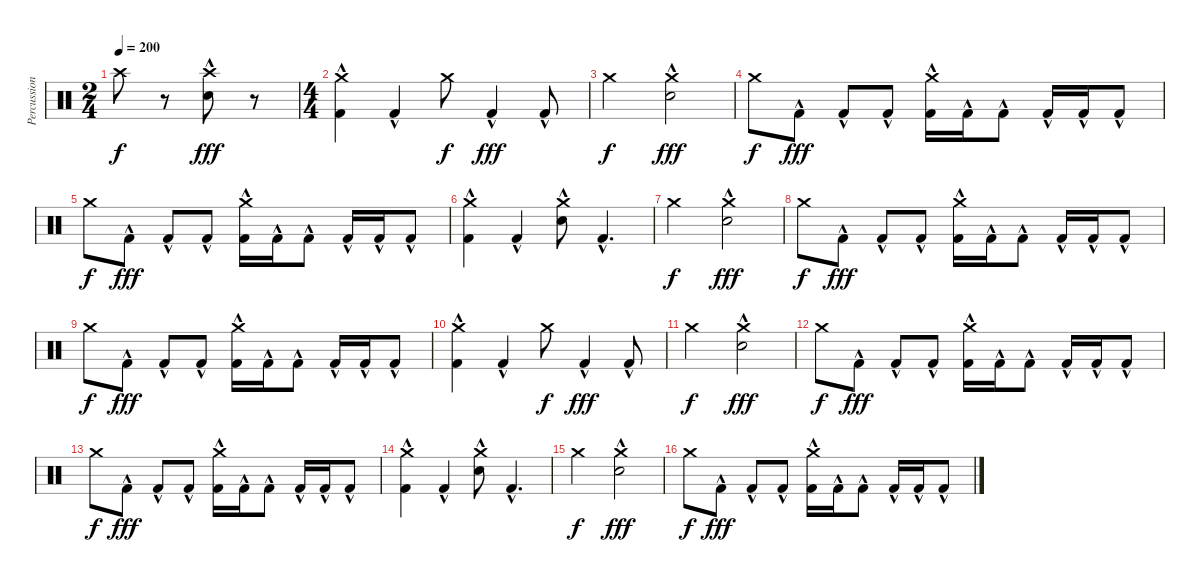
\track ("Percussion" "Percussion") {instrument percussion}
\staff {score}
\articulation defaults
\ts (2 4)
\tempo 200
\clef neutral
\ks c "Crash high (hit)".8{dy f}
r.8 ("Crash high (hit)" "Electric Snare (hit)"{hac}).8{dy fff} r.8 |
\ts (4 4)
("Crash medium (hit)" "Kick (hit) 2"{hac}).4 "Kick (hit) 2"{hac}.4 "Crash medium (hit)".8{dy f} "Kick (hit) 2"{hac}.4{dy fff} "Kick (hit) 2"{hac}.8 |
"Crash medium (hit)".2{dy f} ("Crash medium (hit)" "Electric Snare (hit)"{hac}).2{dy fff} |
"Crash medium (hit)".8{dy f} "Kick (hit) 2"{hac}.8{dy fff} "Kick (hit) 2"{hac}.8 "Kick (hit) 2"{hac}.8 ("Crash medium (hit)" "Kick (hit) 2"{hac}).16 "Kick (hit) 2"{hac}.16 "Kick (hit) 2"{hac}.8 "Kick (hit) 2"{hac}.16 "Kick (hit) 2"{hac}.16 "Kick (hit) 2"{hac}.8 |
"Crash medium (hit)".8{dy f} "Kick (hit) 2"{hac}.8{dy fff} "Kick (hit) 2"{hac}.8 "Kick (hit) 2"{hac}.8 ("Crash medium (hit)" "Kick (hit) 2"{hac}).16 "Kick (hit) 2"{hac}.16 "Kick (hit) 2"{hac}.8 "Kick (hit) 2"{hac}.16 "Kick (hit) 2"{hac}.16 "Kick (hit) 2"{hac}.8 |
("Crash medium (hit)" "Kick (hit) 2"{hac}).4 "Kick (hit) 2"{hac}.4 ("Crash medium (hit)" "Electric Snare (hit)"{hac}).8 "Kick (hit) 2"{hac}.4{d} |
"Crash medium (hit)".2{dy f} ("Crash medium (hit)" "Electric Snare (hit)"{hac}).2{dy fff} |
"Crash medium (hit)".8{dy f} "Kick (hit) 2"{hac}.8{dy fff} "Kick (hit) 2"{hac}.8 "Kick (hit) 2"{hac}.8 ("Crash medium (hit)" "Kick (hit) 2"{hac}).16 "Kick (hit) 2"{hac}.16 "Kick (hit) 2"{hac}.8 "Kick (hit) 2"{hac}.16 "Kick (hit) 2"{hac}.16 "Kick (hit) 2"{hac}.8 |
"Crash medium (hit)".8{dy f} "Kick (hit) 2"{hac}.8{dy fff} "Kick (hit) 2"{hac}.8 "Kick (hit) 2"{hac}.8 ("Crash medium (hit)" "Kick (hit) 2"{hac}).16 "Kick (hit) 2"{hac}.16 "Kick (hit) 2"{hac}.8 "Kick (hit) 2"{hac}.16 "Kick (hit) 2"{hac}.16 "Kick (hit) 2"{hac}.8 |
("Crash medium (hit)" "Kick (hit) 2"{hac}).4 "Kick (hit) 2"{hac}.4 "Crash medium (hit)".8{dy f} "Kick (hit) 2"{hac}.4{dy fff} "Kick (hit) 2"{hac}.8 |
"Crash medium (hit)".2{dy f} ("Crash medium (hit)" "Electric Snare (hit)"{hac}).2{dy fff} |
"Crash medium (hit)".8{dy f} "Kick (hit) 2"{hac}.8{dy fff} "Kick (hit) 2"{hac}.8 "Kick (hit) 2"{hac}.8 ("Crash medium (hit)" "Kick (hit) 2"{hac}).16 "Kick (hit) 2"{hac}.16 "Kick (hit) 2"{hac}.8 "Kick (hit) 2"{hac}.16 "Kick (hit) 2"{hac}.16 "Kick (hit) 2"{hac}.8 |
"Crash medium (hit)".8{dy f} "Kick (hit) 2"{hac}.8{dy fff} "Kick (hit) 2"{hac}.8 "Kick (hit) 2"{hac}.8 ("Crash medium (hit)" "Kick (hit) 2"{hac}).16 "Kick (hit) 2"{hac}.16 "Kick (hit) 2"{hac}.8 "Kick (hit) 2"{hac}.16 "Kick (hit) 2"{hac}.16 "Kick (hit) 2"{hac}.8 |
("Crash medium (hit)" "Kick (hit) 2"{hac}).4 "Kick (hit) 2"{hac}.4 ("Crash medium (hit)" "Electric Snare (hit)"{hac}).8 "Kick (hit) 2"{hac}.4{d} |
"Crash medium (hit)".2{dy f} ("Crash medium (hit)" "Electric Snare (hit)"{hac}).2{dy fff} |
"Crash medium (hit)".8{dy f} "Kick (hit) 2"{hac}.8{dy fff} "Kick (hit) 2"{hac}.8 "Kick (hit) 2"{hac}.8 ("Crash medium (hit)" "Kick (hit) 2"{hac}).16 "Kick (hit) 2"{hac}.16 "Kick (hit) 2"{hac}.8 "Kick (hit) 2"{hac}.16 "Kick (hit) 2"{hac}.16 "Kick (hit) 2"{hac}.8
